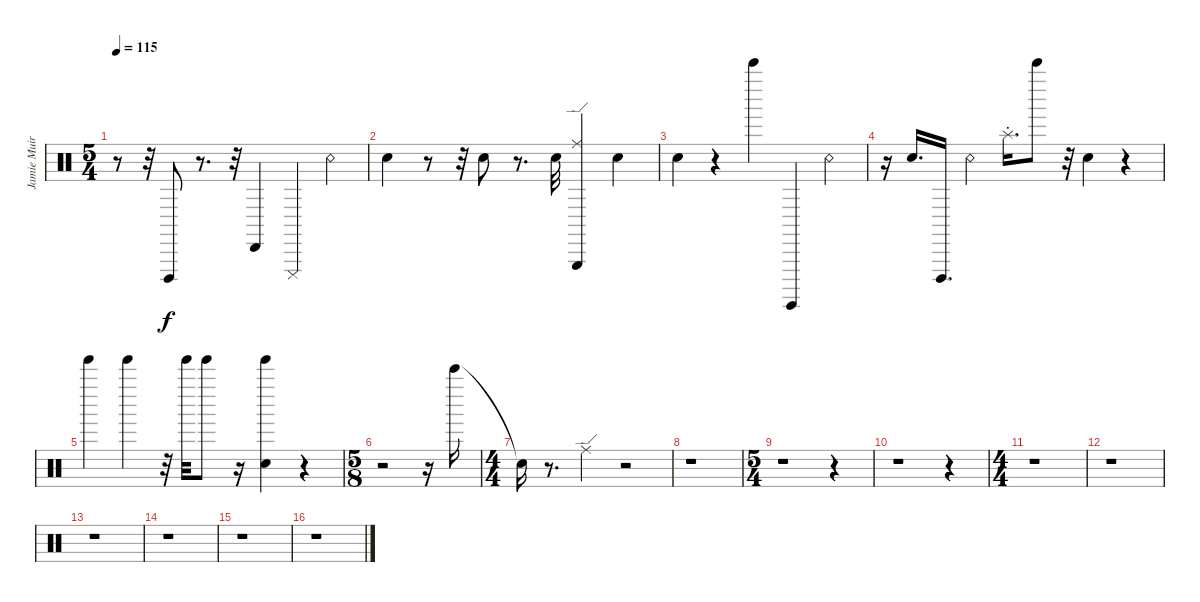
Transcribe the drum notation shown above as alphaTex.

\track ("Jamie Muir percussion" "Jamie Muir") {instrument percussion}
\staff {score}
\articulation defaults
\ts (5 4)
\tempo 115
\clef neutral
\ks c
r.8{dy f} r.32 "Cuica (open)".8 r.8{d} r.32 "Cabasa (hit)".4 "Cuica (mute)".4 "Snare (rim shot)".4 |
"Snare (hit)".4 r.8 r.32 "Snare (hit)".8 r.8{d} "Snare (hit)".32 ("Ride (edge)" "Triangle (hit)").4 "Snare (hit)".4 |
"Snare (hit)".4 r.4 "Bell Tree (hit)".4 "Surdo (hit)".4 "Snare (rim shot)".4 |
r.16 "Snare (hit)".16{d} "Cuica (open)".16{d} "Snare (rim shot)".4 "Splash (choke)".16{d} "Bell Tree (hit)".8 r.32 "Snare (hit)".4 r.4 |
"Tinkle Bell (hit)".4 "Tinkle Bell (hit)".4 r.32 "Tinkle Bell (hit)".32 "Tinkle Bell (hit)".8 r.16 ("Snare (hit)" "Tinkle Bell (hit)").4 r.4 |
\ts (5 8)
r.2 r.16 "Bell Tree (hit)".16 |
\ts (4 4)
"Snare (hit)"{t}.16 r.8{d} "Ride (edge)".4 r.2 |
r.1 |
\ts (5 4)
r.1 r.4 |
r.1 r.4 |
\ts (4 4)
r.1 |
r.1 |
r.1 |
r.1 |
r.1 |
r.1
